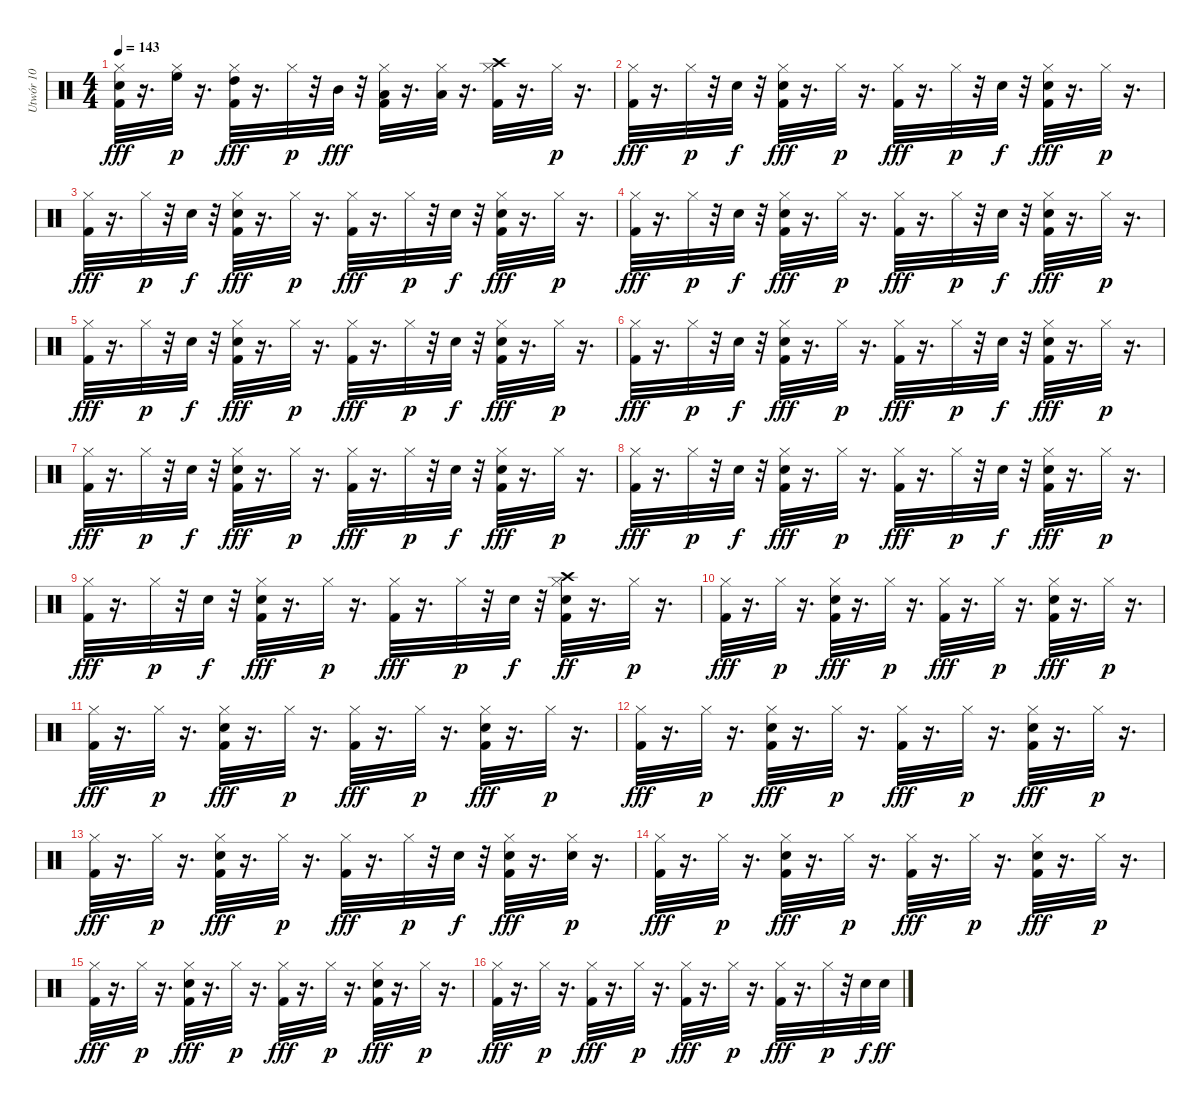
\track ("Utwór 10" "Utwór 10") {instrument percussion}
\staff {score}
\articulation defaults
\ts (4 4)
\tempo 143
\clef neutral
\ks c
("Hi-Hat (closed)" "Kick (hit) 2" "Electric Snare (hit)").32{dy fff} r.16{d} ("High Floor Tom (hit)" "Hi-Hat (closed)").32{dy p} r.16{d} ("Kick (hit) 2" "Hi-Hat (closed)" "High Tom (hit)").32{dy fff} r.16{d} "Hi-Hat (closed)".32{dy p} r.32 "Mid Tom (hit)".32{dy fff} r.32 ("Kick (hit) 2" "Hi-Hat (closed)" "Low Tom (hit)").32 r.16{d} ("Hi-Hat (closed)" "Low Tom (hit)").32 r.16{d} ("Crash high (hit)" "Kick (hit) 2" "Hi-Hat (closed)").32 r.16{d} "Hi-Hat (closed)".32{dy p} r.16{d} |
("Kick (hit) 2" "Hi-Hat (closed)").32{dy fff} r.16{d} "Hi-Hat (closed)".32{dy p} r.32 "Electric Snare (hit)".32{dy f} r.32 ("Kick (hit) 2" "Hi-Hat (closed)" "Electric Snare (hit)").32{dy fff} r.16{d} "Hi-Hat (closed)".32{dy p} r.16{d} ("Hi-Hat (closed)" "Kick (hit) 2").32{dy fff} r.16{d} "Hi-Hat (closed)".32{dy p} r.32 "Electric Snare (hit)".32{dy f} r.32 ("Electric Snare (hit)" "Kick (hit) 2" "Hi-Hat (closed)").32{dy fff} r.16{d} "Hi-Hat (closed)".32{dy p} r.16{d} |
("Kick (hit) 2" "Hi-Hat (closed)").32{dy fff} r.16{d} "Hi-Hat (closed)".32{dy p} r.32 "Electric Snare (hit)".32{dy f} r.32 ("Electric Snare (hit)" "Kick (hit) 2" "Hi-Hat (closed)").32{dy fff} r.16{d} "Hi-Hat (closed)".32{dy p} r.16{d} ("Hi-Hat (closed)" "Kick (hit) 2").32{dy fff} r.16{d} "Hi-Hat (closed)".32{dy p} r.32 "Electric Snare (hit)".32{dy f} r.32 ("Electric Snare (hit)" "Hi-Hat (closed)" "Kick (hit) 2").32{dy fff} r.16{d} "Hi-Hat (closed)".32{dy p} r.16{d} |
("Kick (hit) 2" "Hi-Hat (closed)").32{dy fff} r.16{d} "Hi-Hat (closed)".32{dy p} r.32 "Electric Snare (hit)".32{dy f} r.32 ("Electric Snare (hit)" "Hi-Hat (closed)" "Kick (hit) 2").32{dy fff} r.16{d} "Hi-Hat (closed)".32{dy p} r.16{d} ("Hi-Hat (closed)" "Kick (hit) 2").32{dy fff} r.16{d} "Hi-Hat (closed)".32{dy p} r.32 "Electric Snare (hit)".32{dy f} r.32 ("Electric Snare (hit)" "Hi-Hat (closed)" "Kick (hit) 2").32{dy fff} r.16{d} "Hi-Hat (closed)".32{dy p} r.16{d} |
("Kick (hit) 2" "Hi-Hat (closed)").32{dy fff} r.16{d} "Hi-Hat (closed)".32{dy p} r.32 "Electric Snare (hit)".32{dy f} r.32 ("Electric Snare (hit)" "Hi-Hat (closed)" "Kick (hit) 2").32{dy fff} r.16{d} "Hi-Hat (closed)".32{dy p} r.16{d} ("Kick (hit) 2" "Hi-Hat (closed)").32{dy fff} r.16{d} "Hi-Hat (closed)".32{dy p} r.32 "Electric Snare (hit)".32{dy f} r.32 ("Hi-Hat (closed)" "Electric Snare (hit)" "Kick (hit) 2").32{dy fff} r.16{d} "Hi-Hat (closed)".32{dy p} r.16{d} |
("Kick (hit) 2" "Hi-Hat (closed)").32{dy fff} r.16{d} "Hi-Hat (closed)".32{dy p} r.32 "Electric Snare (hit)".32{dy f} r.32 ("Kick (hit) 2" "Hi-Hat (closed)" "Electric Snare (hit)").32{dy fff} r.16{d} "Hi-Hat (closed)".32{dy p} r.16{d} ("Hi-Hat (closed)" "Kick (hit) 2").32{dy fff} r.16{d} "Hi-Hat (closed)".32{dy p} r.32 "Electric Snare (hit)".32{dy f} r.32 ("Kick (hit) 2" "Hi-Hat (closed)" "Electric Snare (hit)").32{dy fff} r.16{d} "Hi-Hat (closed)".32{dy p} r.16{d} |
("Hi-Hat (closed)" "Kick (hit) 2").32{dy fff} r.16{d} "Hi-Hat (closed)".32{dy p} r.32 "Electric Snare (hit)".32{dy f} r.32 ("Hi-Hat (closed)" "Kick (hit) 2" "Electric Snare (hit)").32{dy fff} r.16{d} "Hi-Hat (closed)".32{dy p} r.16{d} ("Hi-Hat (closed)" "Kick (hit) 2").32{dy fff} r.16{d} "Hi-Hat (closed)".32{dy p} r.32 "Electric Snare (hit)".32{dy f} r.32 ("Hi-Hat (closed)" "Electric Snare (hit)" "Kick (hit) 2").32{dy fff} r.16{d} "Hi-Hat (closed)".32{dy p} r.16{d} |
("Hi-Hat (closed)" "Kick (hit) 2").32{dy fff} r.16{d} "Hi-Hat (closed)".32{dy p} r.32 "Electric Snare (hit)".32{dy f} r.32 ("Kick (hit) 2" "Electric Snare (hit)" "Hi-Hat (closed)").32{dy fff} r.16{d} "Hi-Hat (closed)".32{dy p} r.16{d} ("Hi-Hat (closed)" "Kick (hit) 2").32{dy fff} r.16{d} "Hi-Hat (closed)".32{dy p} r.32 "Electric Snare (hit)".32{dy f} r.32 ("Hi-Hat (closed)" "Electric Snare (hit)" "Kick (hit) 2").32{dy fff} r.16{d} "Hi-Hat (closed)".32{dy p} r.16{d} |
("Hi-Hat (closed)" "Kick (hit) 2").32{dy fff} r.16{d} "Hi-Hat (closed)".32{dy p} r.32 "Electric Snare (hit)".32{dy f} r.32 ("Hi-Hat (closed)" "Kick (hit) 2" "Electric Snare (hit)").32{dy fff} r.16{d} "Hi-Hat (closed)".32{dy p} r.16{d} ("Hi-Hat (closed)" "Kick (hit) 2").32{dy fff} r.16{d} "Hi-Hat (closed)".32{dy p} r.32 "Electric Snare (hit)".32{dy f} r.32 ("Hi-Hat (closed)" "Kick (hit) 2" "Electric Snare (hit)" "Crash high (hit)").32{dy ff} r.16{d} "Hi-Hat (closed)".32{dy p} r.16{d} |
("Hi-Hat (closed)" "Kick (hit) 2").32{dy fff} r.16{d} "Hi-Hat (closed)".32{dy p} r.16{d} ("Hi-Hat (closed)" "Electric Snare (hit)" "Kick (hit) 2").32{dy fff} r.16{d} "Hi-Hat (closed)".32{dy p} r.16{d} ("Kick (hit) 2" "Hi-Hat (closed)").32{dy fff} r.16{d} "Hi-Hat (closed)".32{dy p} r.16{d} ("Kick (hit) 2" "Hi-Hat (closed)" "Electric Snare (hit)").32{dy fff} r.16{d} "Hi-Hat (closed)".32{dy p} r.16{d} |
("Kick (hit) 2" "Hi-Hat (closed)").32{dy fff} r.16{d} "Hi-Hat (closed)".32{dy p} r.16{d} ("Kick (hit) 2" "Hi-Hat (closed)" "Electric Snare (hit)").32{dy fff} r.16{d} "Hi-Hat (closed)".32{dy p} r.16{d} ("Kick (hit) 2" "Hi-Hat (closed)").32{dy fff} r.16{d} "Hi-Hat (closed)".32{dy p} r.16{d} ("Electric Snare (hit)" "Hi-Hat (closed)" "Kick (hit) 2").32{dy fff} r.16{d} "Hi-Hat (closed)".32{dy p} r.16{d} |
("Kick (hit) 2" "Hi-Hat (closed)").32{dy fff} r.16{d} "Hi-Hat (closed)".32{dy p} r.16{d} ("Electric Snare (hit)" "Hi-Hat (closed)" "Kick (hit) 2").32{dy fff} r.16{d} "Hi-Hat (closed)".32{dy p} r.16{d} ("Hi-Hat (closed)" "Kick (hit) 2").32{dy fff} r.16{d} "Hi-Hat (closed)".32{dy p} r.16{d} ("Electric Snare (hit)" "Kick (hit) 2" "Hi-Hat (closed)").32{dy fff} r.16{d} "Hi-Hat (closed)".32{dy p} r.16{d} |
("Kick (hit) 2" "Hi-Hat (closed)").32{dy fff} r.16{d} "Hi-Hat (closed)".32{dy p} r.16{d} ("Electric Snare (hit)" "Kick (hit) 2" "Hi-Hat (closed)").32{dy fff} r.16{d} "Hi-Hat (closed)".32{dy p} r.16{d} ("Kick (hit) 2" "Hi-Hat (closed)").32{dy fff} r.16{d} "Hi-Hat (closed)".32{dy p} r.32 "Electric Snare (hit)".32{dy f} r.32 ("Electric Snare (hit)" "Hi-Hat (closed)" "Kick (hit) 2").32{dy fff} r.16{d} ("Hi-Hat (closed)" "Electric Snare (hit)").32{dy p} r.16{d} |
("Kick (hit) 2" "Hi-Hat (closed)").32{dy fff} r.16{d} "Hi-Hat (closed)".32{dy p} r.16{d} ("Electric Snare (hit)" "Hi-Hat (closed)" "Kick (hit) 2").32{dy fff} r.16{d} "Hi-Hat (closed)".32{dy p} r.16{d} ("Kick (hit) 2" "Hi-Hat (closed)").32{dy fff} r.16{d} "Hi-Hat (closed)".32{dy p} r.16{d} ("Kick (hit) 2" "Hi-Hat (closed)" "Electric Snare (hit)").32{dy fff} r.16{d} "Hi-Hat (closed)".32{dy p} r.16{d} |
("Hi-Hat (closed)" "Kick (hit) 2").32{dy fff} r.16{d} "Hi-Hat (closed)".32{dy p} r.16{d} ("Electric Snare (hit)" "Hi-Hat (closed)" "Kick (hit) 2").32{dy fff} r.16{d} "Hi-Hat (closed)".32{dy p} r.16{d} ("Kick (hit) 2" "Hi-Hat (closed)").32{dy fff} r.16{d} "Hi-Hat (closed)".32{dy p} r.16{d} ("Kick (hit) 2" "Electric Snare (hit)" "Hi-Hat (closed)").32{dy fff} r.16{d} "Hi-Hat (closed)".32{dy p} r.16{d} |
("Hi-Hat (closed)" "Kick (hit) 2").32{dy fff} r.16{d} "Hi-Hat (closed)".32{dy p} r.16{d} ("Kick (hit) 2" "Hi-Hat (closed)").32{dy fff} r.16{d} "Hi-Hat (closed)".32{dy p} r.16{d} ("Kick (hit) 2" "Hi-Hat (closed)").32{dy fff} r.16{d} "Hi-Hat (closed)".32{dy p} r.16{d} ("Hi-Hat (closed)" "Kick (hit) 2").32{dy fff} r.16{d} "Hi-Hat (closed)".32{dy p} r.32 "Electric Snare (hit)".32{dy f} "Electric Snare (hit)".32{dy ff}
